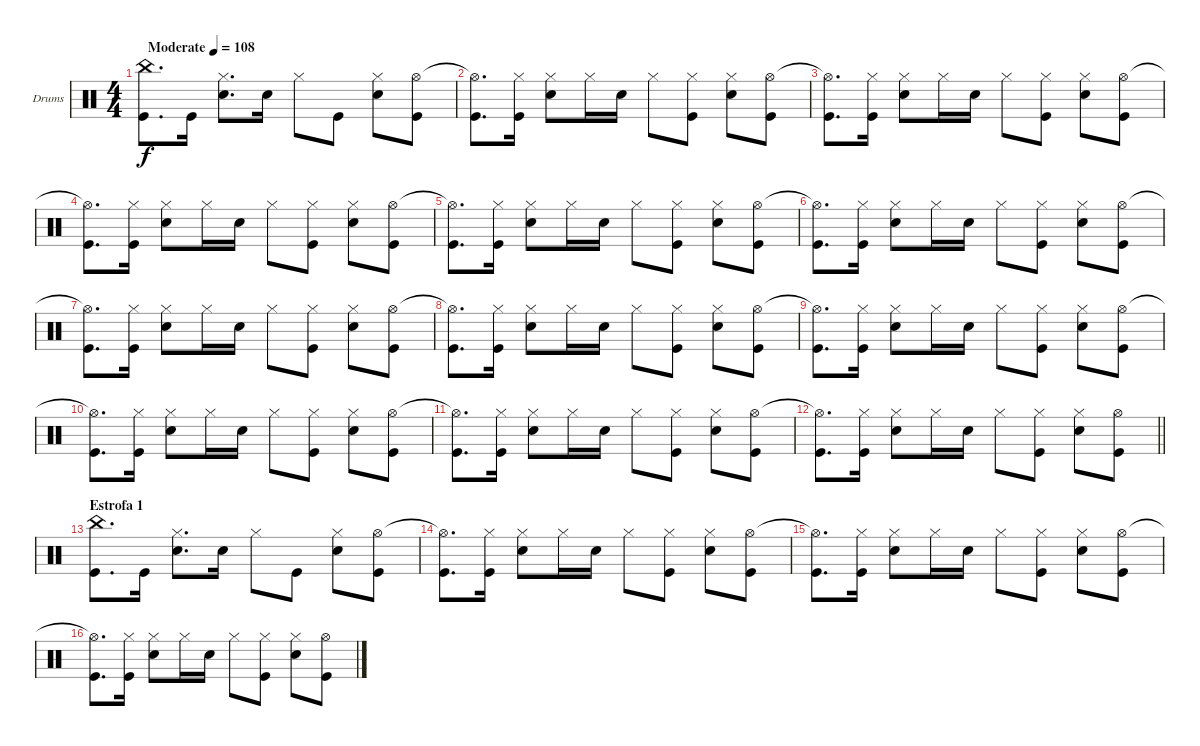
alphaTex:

\bracketExtendMode groupsimilarinstruments
\firstSystemTrackNameOrientation horizontal
\otherSystemsTrackNameOrientation horizontal
\track ("Drumkit" "Drums") {instrument percussion}
\staff {score}
\articulation defaults
\ts (4 4)
\beaming (8 2 2 2 2)
\tempo (108 "Moderate")
\clef neutral
\ks c
("China (hit)" "Kick (hit)").8{d dy f} "Kick (hit)".16 ("Hi-Hat (closed)" "Snare (hit) 2").8{d} "Snare (hit) 2".16 "Hi-Hat (closed)".8 "Kick (hit)".8 ("Hi-Hat (closed)" "Snare (hit) 2").8 ("Hi-Hat (open)" "Kick (hit)").8 |
("Hi-Hat (open)"{t} "Kick (hit)").8{d} ("Hi-Hat (closed)" "Kick (hit)").16 ("Hi-Hat (closed)" "Snare (hit) 2").8 "Hi-Hat (closed)".16 "Snare (hit) 2".16 "Hi-Hat (closed)".8 ("Hi-Hat (closed)" "Kick (hit)").8 ("Hi-Hat (closed)" "Snare (hit) 2").8 ("Hi-Hat (open)" "Kick (hit)").8 |
("Hi-Hat (open)"{t} "Kick (hit)").8{d} ("Hi-Hat (closed)" "Kick (hit)").16 ("Hi-Hat (closed)" "Snare (hit) 2").8 "Hi-Hat (closed)".16 "Snare (hit) 2".16 "Hi-Hat (closed)".8 ("Hi-Hat (closed)" "Kick (hit)").8 ("Hi-Hat (closed)" "Snare (hit) 2").8 ("Hi-Hat (open)" "Kick (hit)").8 |
("Hi-Hat (open)"{t} "Kick (hit)").8{d} ("Hi-Hat (closed)" "Kick (hit)").16 ("Hi-Hat (closed)" "Snare (hit) 2").8 "Hi-Hat (closed)".16 "Snare (hit) 2".16 "Hi-Hat (closed)".8 ("Hi-Hat (closed)" "Kick (hit)").8 ("Hi-Hat (closed)" "Snare (hit) 2").8 ("Hi-Hat (open)" "Kick (hit)").8 |
("Hi-Hat (open)"{t} "Kick (hit)").8{d} ("Hi-Hat (closed)" "Kick (hit)").16 ("Hi-Hat (closed)" "Snare (hit) 2").8 "Hi-Hat (closed)".16 "Snare (hit) 2".16 "Hi-Hat (closed)".8 ("Hi-Hat (closed)" "Kick (hit)").8 ("Hi-Hat (closed)" "Snare (hit) 2").8 ("Hi-Hat (open)" "Kick (hit)").8 |
("Hi-Hat (open)"{t} "Kick (hit)").8{d} ("Hi-Hat (closed)" "Kick (hit)").16 ("Hi-Hat (closed)" "Snare (hit) 2").8 "Hi-Hat (closed)".16 "Snare (hit) 2".16 "Hi-Hat (closed)".8 ("Hi-Hat (closed)" "Kick (hit)").8 ("Hi-Hat (closed)" "Snare (hit) 2").8 ("Hi-Hat (open)" "Kick (hit)").8 |
("Hi-Hat (open)"{t} "Kick (hit)").8{d} ("Hi-Hat (closed)" "Kick (hit)").16 ("Hi-Hat (closed)" "Snare (hit) 2").8 "Hi-Hat (closed)".16 "Snare (hit) 2".16 "Hi-Hat (closed)".8 ("Hi-Hat (closed)" "Kick (hit)").8 ("Hi-Hat (closed)" "Snare (hit) 2").8 ("Hi-Hat (open)" "Kick (hit)").8 |
("Hi-Hat (open)"{t} "Kick (hit)").8{d} ("Hi-Hat (closed)" "Kick (hit)").16 ("Hi-Hat (closed)" "Snare (hit) 2").8 "Hi-Hat (closed)".16 "Snare (hit) 2".16 "Hi-Hat (closed)".8 ("Hi-Hat (closed)" "Kick (hit)").8 ("Hi-Hat (closed)" "Snare (hit) 2").8 ("Hi-Hat (open)" "Kick (hit)").8 |
("Hi-Hat (open)"{t} "Kick (hit)").8{d} ("Hi-Hat (closed)" "Kick (hit)").16 ("Hi-Hat (closed)" "Snare (hit) 2").8 "Hi-Hat (closed)".16 "Snare (hit) 2".16 "Hi-Hat (closed)".8 ("Hi-Hat (closed)" "Kick (hit)").8 ("Hi-Hat (closed)" "Snare (hit) 2").8 ("Hi-Hat (open)" "Kick (hit)").8 |
("Hi-Hat (open)"{t} "Kick (hit)").8{d} ("Hi-Hat (closed)" "Kick (hit)").16 ("Hi-Hat (closed)" "Snare (hit) 2").8 "Hi-Hat (closed)".16 "Snare (hit) 2".16 "Hi-Hat (closed)".8 ("Hi-Hat (closed)" "Kick (hit)").8 ("Hi-Hat (closed)" "Snare (hit) 2").8 ("Hi-Hat (open)" "Kick (hit)").8 |
("Hi-Hat (open)"{t} "Kick (hit)").8{d} ("Hi-Hat (closed)" "Kick (hit)").16 ("Hi-Hat (closed)" "Snare (hit) 2").8 "Hi-Hat (closed)".16 "Snare (hit) 2".16 "Hi-Hat (closed)".8 ("Hi-Hat (closed)" "Kick (hit)").8 ("Hi-Hat (closed)" "Snare (hit) 2").8 ("Hi-Hat (open)" "Kick (hit)").8 |
\barLineRight lightlight
("Hi-Hat (open)"{t} "Kick (hit)").8{d} ("Hi-Hat (closed)" "Kick (hit)").16 ("Hi-Hat (closed)" "Snare (hit) 2").8 "Hi-Hat (closed)".16 "Snare (hit) 2".16 "Hi-Hat (closed)".8 ("Hi-Hat (closed)" "Kick (hit)").8 ("Hi-Hat (closed)" "Snare (hit) 2").8 ("Hi-Hat (open)" "Kick (hit)").8 |
\section ("" "Estrofa 1")
("China (hit)" "Kick (hit)").8{d} "Kick (hit)".16 ("Hi-Hat (closed)" "Snare (hit) 2").8{d} "Snare (hit) 2".16 "Hi-Hat (closed)".8 "Kick (hit)".8 ("Hi-Hat (closed)" "Snare (hit) 2").8 ("Hi-Hat (open)" "Kick (hit)").8 |
("Hi-Hat (open)"{t} "Kick (hit)").8{d} ("Hi-Hat (closed)" "Kick (hit)").16 ("Hi-Hat (closed)" "Snare (hit) 2").8 "Hi-Hat (closed)".16 "Snare (hit) 2".16 "Hi-Hat (closed)".8 ("Hi-Hat (closed)" "Kick (hit)").8 ("Hi-Hat (closed)" "Snare (hit) 2").8 ("Hi-Hat (open)" "Kick (hit)").8 |
("Hi-Hat (open)"{t} "Kick (hit)").8{d} ("Hi-Hat (closed)" "Kick (hit)").16 ("Hi-Hat (closed)" "Snare (hit) 2").8 "Hi-Hat (closed)".16 "Snare (hit) 2".16 "Hi-Hat (closed)".8 ("Hi-Hat (closed)" "Kick (hit)").8 ("Hi-Hat (closed)" "Snare (hit) 2").8 ("Hi-Hat (open)" "Kick (hit)").8 |
("Hi-Hat (open)"{t} "Kick (hit)").8{d} ("Hi-Hat (closed)" "Kick (hit)").16 ("Hi-Hat (closed)" "Snare (hit) 2").8 "Hi-Hat (closed)".16 "Snare (hit) 2".16 "Hi-Hat (closed)".8 ("Hi-Hat (closed)" "Kick (hit)").8 ("Hi-Hat (closed)" "Snare (hit) 2").8 ("Hi-Hat (open)" "Kick (hit)").8
